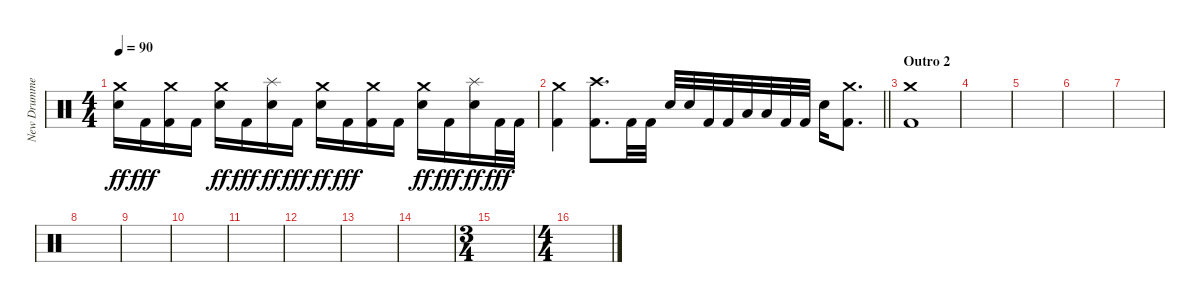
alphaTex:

\track ("New Drummer" "New Drumme") {instrument percussion}
\staff {score}
\articulation defaults
\ts (4 4)
\tempo 90
\clef neutral
\ks c
("Crash medium (hit)" "Electric Snare (hit)").16{dy ff} "Kick (hit) 2".16{dy fff} ("Crash medium (hit)" "Kick (hit) 2").16 "Kick (hit) 2".16 ("Crash medium (hit)" "Electric Snare (hit)").16{dy ff} "Kick (hit) 2".16{dy fff} ("Splash (hit)" "Electric Snare (hit)").16{dy ff} "Kick (hit) 2".16{dy fff} ("Crash medium (hit)" "Electric Snare (hit)").16{dy ff} "Kick (hit) 2".16{dy fff} ("Crash medium (hit)" "Kick (hit) 2").16 "Kick (hit) 2".16 ("Crash medium (hit)" "Electric Snare (hit)").16{dy ff} "Kick (hit) 2".16{dy fff} ("Splash (hit)" "Electric Snare (hit)").16{dy ff} "Kick (hit) 2".32{dy fff} "Kick (hit) 2".32 |
\barLineRight lightlight
("Crash medium (hit)" "Kick (hit) 2").4 ("Crash high (hit)" "Kick (hit) 2").8{d} "Kick (hit) 2".32 "Kick (hit) 2".32 "Electric Snare (hit)".32 "Electric Snare (hit)".32 "Kick (hit) 2".32 "Kick (hit) 2".32 "Low Tom (hit)".32 "Low Tom (hit)".32 "Kick (hit) 2".32 "Kick (hit) 2".32 "Electric Snare (hit)".16 ("Crash medium (hit)" "Kick (hit) 2").8{d} |
\section ("" "Outro 2")
("Crash medium (hit)" "Kick (hit) 2").1 |
|
|
|
|
|
|
|
|
|
|
|
\ts (3 4)
|
\ts (4 4)
